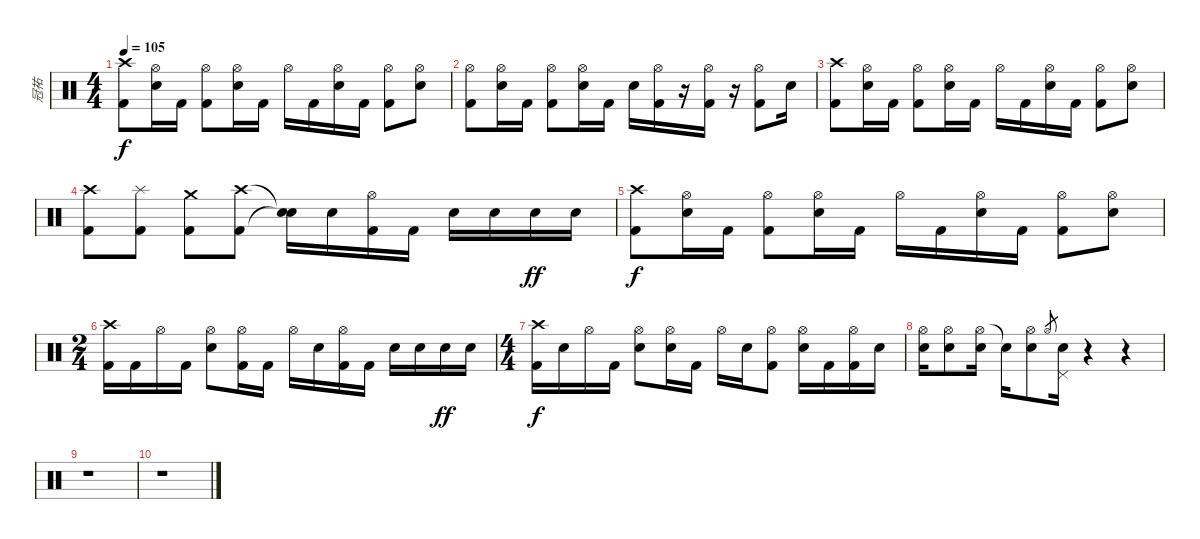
\track ("冠祐" "冠祐") {instrument percussion}
\staff {score}
\articulation defaults
\ts (4 4)
\tempo 105
\clef neutral
\ks c
("Crash high (hit)" "Kick (hit) 2").8{dy f} ("Hi-Hat (open)" "Electric Snare (hit)").16 "Kick (hit) 2".16 ("Hi-Hat (open)" "Kick (hit) 2").8 ("Hi-Hat (open)" "Electric Snare (hit)").16 "Kick (hit) 2".16 "Hi-Hat (open)".16 "Kick (hit) 2".16 ("Hi-Hat (open)" "Electric Snare (hit)").16 "Kick (hit) 2".16 ("Hi-Hat (open)" "Kick (hit) 2").8 ("Hi-Hat (open)" "Electric Snare (hit)").8 |
("Hi-Hat (open)" "Kick (hit) 2").8 ("Hi-Hat (open)" "Electric Snare (hit)").16 "Kick (hit) 2".16 ("Hi-Hat (open)" "Kick (hit) 2").8 ("Hi-Hat (open)" "Electric Snare (hit)").16 "Kick (hit) 2".16 "Electric Snare (hit)".16 ("Hi-Hat (open)" "Kick (hit) 2").16 r.16 ("Hi-Hat (open)" "Kick (hit) 2").16 r.16 ("Hi-Hat (open)" "Kick (hit) 2").8 "Electric Snare (hit)".16 |
("Crash high (hit)" "Kick (hit) 2").8 ("Hi-Hat (open)" "Electric Snare (hit)").16 "Kick (hit) 2".16 ("Hi-Hat (open)" "Kick (hit) 2").8 ("Hi-Hat (open)" "Electric Snare (hit)").16 "Kick (hit) 2".16 "Hi-Hat (open)".16 "Kick (hit) 2".16 ("Hi-Hat (open)" "Electric Snare (hit)").16 "Kick (hit) 2".16 ("Hi-Hat (open)" "Kick (hit) 2").8 ("Hi-Hat (open)" "Electric Snare (hit)").8 |
("Crash high (hit)" "Kick (hit) 2").8 ("Splash (hit)" "Kick (hit) 2").8 ("Crash medium (hit)" "Kick (hit) 2").8 ("Crash high (hit)" "Kick (hit) 2").8 ("Snare (hit)"{t} "Snare (hit)"{t}).16 "Electric Snare (hit)".16 ("Hi-Hat (open)" "Kick (hit) 2").16 "Kick (hit) 2".16 "Electric Snare (hit)".16 "Electric Snare (hit)".16 "Electric Snare (hit)".16{dy ff} "Electric Snare (hit)".16 |
("Crash high (hit)" "Kick (hit) 2").8{dy f} ("Hi-Hat (open)" "Electric Snare (hit)").16 "Kick (hit) 2".16 ("Hi-Hat (open)" "Kick (hit) 2").8 ("Hi-Hat (open)" "Electric Snare (hit)").16 "Kick (hit) 2".16 "Hi-Hat (open)".16 "Kick (hit) 2".16 ("Hi-Hat (open)" "Electric Snare (hit)").16 "Kick (hit) 2".16 ("Hi-Hat (open)" "Kick (hit) 2").8 ("Hi-Hat (open)" "Electric Snare (hit)").8 |
\ts (2 4)
("Crash high (hit)" "Kick (hit) 2").16 "Kick (hit) 2".16 "Hi-Hat (open)".16 "Kick (hit) 2".16 ("Hi-Hat (open)" "Electric Snare (hit)").8 ("Hi-Hat (open)" "Kick (hit) 2").16 "Kick (hit) 2".16 "Hi-Hat (open)".16 "Electric Snare (hit)".16 ("Hi-Hat (open)" "Kick (hit) 2").16 "Kick (hit) 2".16 "Electric Snare (hit)".16 "Electric Snare (hit)".16 "Electric Snare (hit)".16{dy ff} "Electric Snare (hit)".16 |
\ts (4 4)
("Crash high (hit)" "Kick (hit) 2").16{dy f} "Electric Snare (hit)".16 "Hi-Hat (open)".16 "Kick (hit) 2".16 ("Hi-Hat (open)" "Electric Snare (hit)").8 ("Hi-Hat (open)" "Electric Snare (hit)").16 "Kick (hit) 2".16 "Hi-Hat (open)".16 "Electric Snare (hit)".16 ("Hi-Hat (open)" "Kick (hit) 2").8 ("Hi-Hat (open)" "Electric Snare (hit)").16 "Kick (hit) 2".16 ("Hi-Hat (open)" "Kick (hit) 2").16 "Electric Snare (hit)".16 |
("Hi-Hat (open)" "Electric Snare (hit)").16 ("Hi-Hat (open)" "Electric Snare (hit)").8 ("Hi-Hat (open)" "Electric Snare (hit)").16 "Electric Snare (hit)"{t}.16 ("Hi-Hat (open)" "Electric Snare (hit)").8 "Hi-Hat (open)".8{gr} ("Pedal Hi-Hat (hit)" "Electric Snare (hit)").16 r.4 r.4 |
r.1 |
r.1
